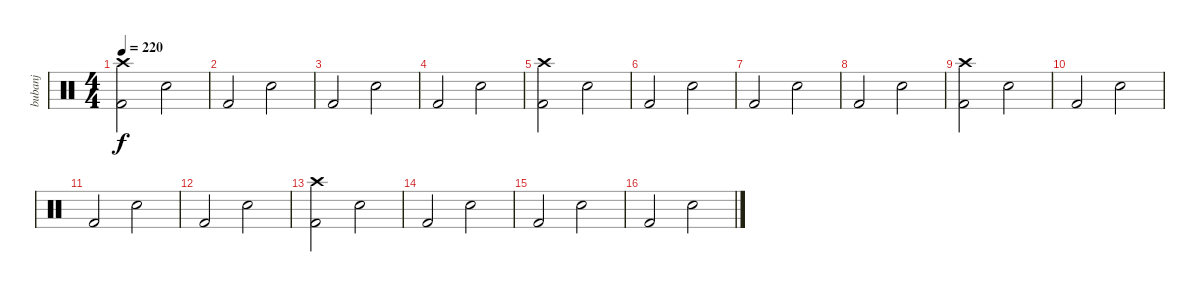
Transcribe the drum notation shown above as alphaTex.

\track ("bubanj" "bubanj") {instrument percussion}
\staff {score}
\articulation defaults
\ts (4 4)
\tempo 220
\clef neutral
\ks c
("Kick (hit) 2" "Crash high (hit)").2{dy f} "Snare (hit) 2".2 |
"Kick (hit) 2".2 "Snare (hit) 2".2 |
"Kick (hit) 2".2 "Snare (hit) 2".2 |
"Kick (hit) 2".2 "Snare (hit) 2".2 |
("Kick (hit) 2" "Crash high (hit)").2 "Snare (hit) 2".2 |
"Kick (hit) 2".2 "Snare (hit) 2".2 |
"Kick (hit) 2".2 "Snare (hit) 2".2 |
"Kick (hit) 2".2 "Snare (hit) 2".2 |
("Kick (hit) 2" "Crash high (hit)").2 "Snare (hit) 2".2 |
"Kick (hit) 2".2 "Snare (hit) 2".2 |
"Kick (hit) 2".2 "Snare (hit) 2".2 |
"Kick (hit) 2".2 "Snare (hit) 2".2 |
("Kick (hit) 2" "Crash high (hit)").2 "Snare (hit) 2".2 |
"Kick (hit) 2".2 "Snare (hit) 2".2 |
"Kick (hit) 2".2 "Snare (hit) 2".2 |
"Kick (hit) 2".2 "Snare (hit) 2".2
